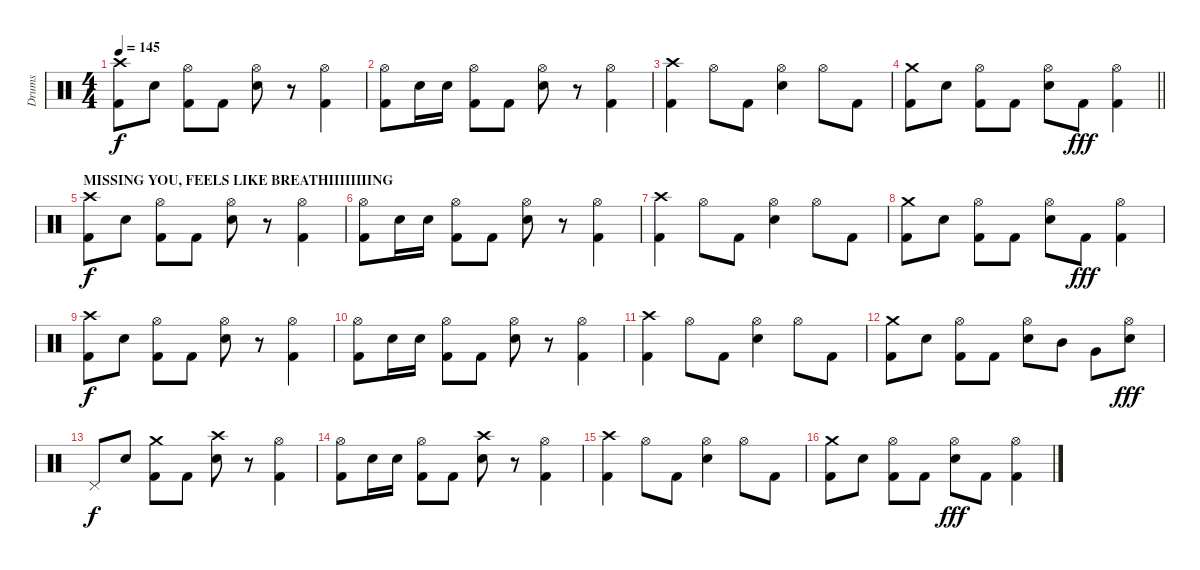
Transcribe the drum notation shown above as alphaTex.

\track ("Drums" "Drums") {instrument percussion}
\staff {score}
\articulation defaults
\ts (4 4)
\tempo 145
\clef neutral
\ks c
("Crash high (hit)" "Kick (hit) 2").8{dy f} "Electric Snare (hit)".8 ("Hi-Hat (open)" "Kick (hit) 2").8 "Kick (hit) 2".8 ("Hi-Hat (open)" "Electric Snare (hit)").8 r.8 ("Hi-Hat (open)" "Kick (hit) 2").4 |
("Hi-Hat (open)" "Kick (hit) 2").8 "Electric Snare (hit)".16 "Electric Snare (hit)".16 ("Hi-Hat (open)" "Kick (hit) 2").8 "Kick (hit) 2".8 ("Hi-Hat (open)" "Electric Snare (hit)").8 r.8 ("Hi-Hat (open)" "Kick (hit) 2").4 |
("Crash high (hit)" "Kick (hit) 2").4 "Hi-Hat (open)".8 "Kick (hit) 2".8 ("Hi-Hat (open)" "Electric Snare (hit)").4 "Hi-Hat (open)".8 "Kick (hit) 2".8 |
\barLineRight lightlight
("Crash medium (hit)" "Kick (hit) 2").8 "Electric Snare (hit)".8 ("Hi-Hat (open)" "Kick (hit) 2").8 "Kick (hit) 2".8 ("Hi-Hat (open)" "Electric Snare (hit)").8 "Kick (hit) 2".8{dy fff} ("Hi-Hat (open)" "Kick (hit) 2").4 |
\section ("" "MISSING YOU, FEELS LIKE BREATHIIIIIIIING")
("Crash high (hit)" "Kick (hit) 2").8{dy f} "Electric Snare (hit)".8 ("Hi-Hat (open)" "Kick (hit) 2").8 "Kick (hit) 2".8 ("Hi-Hat (open)" "Electric Snare (hit)").8 r.8 ("Hi-Hat (open)" "Kick (hit) 2").4 |
("Hi-Hat (open)" "Kick (hit) 2").8 "Electric Snare (hit)".16 "Electric Snare (hit)".16 ("Hi-Hat (open)" "Kick (hit) 2").8 "Kick (hit) 2".8 ("Hi-Hat (open)" "Electric Snare (hit)").8 r.8 ("Hi-Hat (open)" "Kick (hit) 2").4 |
("Crash high (hit)" "Kick (hit) 2").4 "Hi-Hat (open)".8 "Kick (hit) 2".8 ("Hi-Hat (open)" "Electric Snare (hit)").4 "Hi-Hat (open)".8 "Kick (hit) 2".8 |
("Crash medium (hit)" "Kick (hit) 2").8 "Electric Snare (hit)".8 ("Hi-Hat (open)" "Kick (hit) 2").8 "Kick (hit) 2".8 ("Hi-Hat (open)" "Electric Snare (hit)").8 "Kick (hit) 2".8{dy fff} ("Hi-Hat (open)" "Kick (hit) 2").4 |
("Crash high (hit)" "Kick (hit) 2").8{dy f} "Electric Snare (hit)".8 ("Hi-Hat (open)" "Kick (hit) 2").8 "Kick (hit) 2".8 ("Hi-Hat (open)" "Electric Snare (hit)").8 r.8 ("Hi-Hat (open)" "Kick (hit) 2").4 |
("Hi-Hat (open)" "Kick (hit) 2").8 "Electric Snare (hit)".16 "Electric Snare (hit)".16 ("Hi-Hat (open)" "Kick (hit) 2").8 "Kick (hit) 2".8 ("Hi-Hat (open)" "Electric Snare (hit)").8 r.8 ("Hi-Hat (open)" "Kick (hit) 2").4 |
("Crash high (hit)" "Kick (hit) 2").4 "Hi-Hat (open)".8 "Kick (hit) 2".8 ("Hi-Hat (open)" "Electric Snare (hit)").4 "Hi-Hat (open)".8 "Kick (hit) 2".8 |
("Crash medium (hit)" "Kick (hit) 2").8 "Electric Snare (hit)".8 ("Hi-Hat (open)" "Kick (hit) 2").8 "Kick (hit) 2".8 ("Hi-Hat (open)" "Electric Snare (hit)").8 "Mid Tom (hit)".8 "Very Low Tom (hit)".8 ("Hi-Hat (open)" "Electric Snare (hit)").8{dy fff} |
"Pedal Hi-Hat (hit)".8{dy f} "Electric Snare (hit)".8 ("Crash medium (hit)" "Kick (hit) 2").8 "Kick (hit) 2".8 ("Crash high (hit)" "Electric Snare (hit)").8 r.8 ("Hi-Hat (open)" "Kick (hit) 2").4 |
("Hi-Hat (open)" "Kick (hit) 2").8 "Electric Snare (hit)".16 "Electric Snare (hit)".16 ("Hi-Hat (open)" "Kick (hit) 2").8 "Kick (hit) 2".8 ("Crash high (hit)" "Electric Snare (hit)").8 r.8 ("Hi-Hat (open)" "Kick (hit) 2").4 |
("Crash high (hit)" "Kick (hit) 2").4 "Hi-Hat (open)".8 "Kick (hit) 2".8 ("Hi-Hat (open)" "Electric Snare (hit)").4 "Hi-Hat (open)".8 "Kick (hit) 2".8 |
("Crash medium (hit)" "Kick (hit) 2").8 "Electric Snare (hit)".8 ("Hi-Hat (open)" "Kick (hit) 2").8 "Kick (hit) 2".8 ("Hi-Hat (open)" "Electric Snare (hit)").8{dy fff} "Kick (hit) 2".8 ("Hi-Hat (open)" "Kick (hit) 2").4
